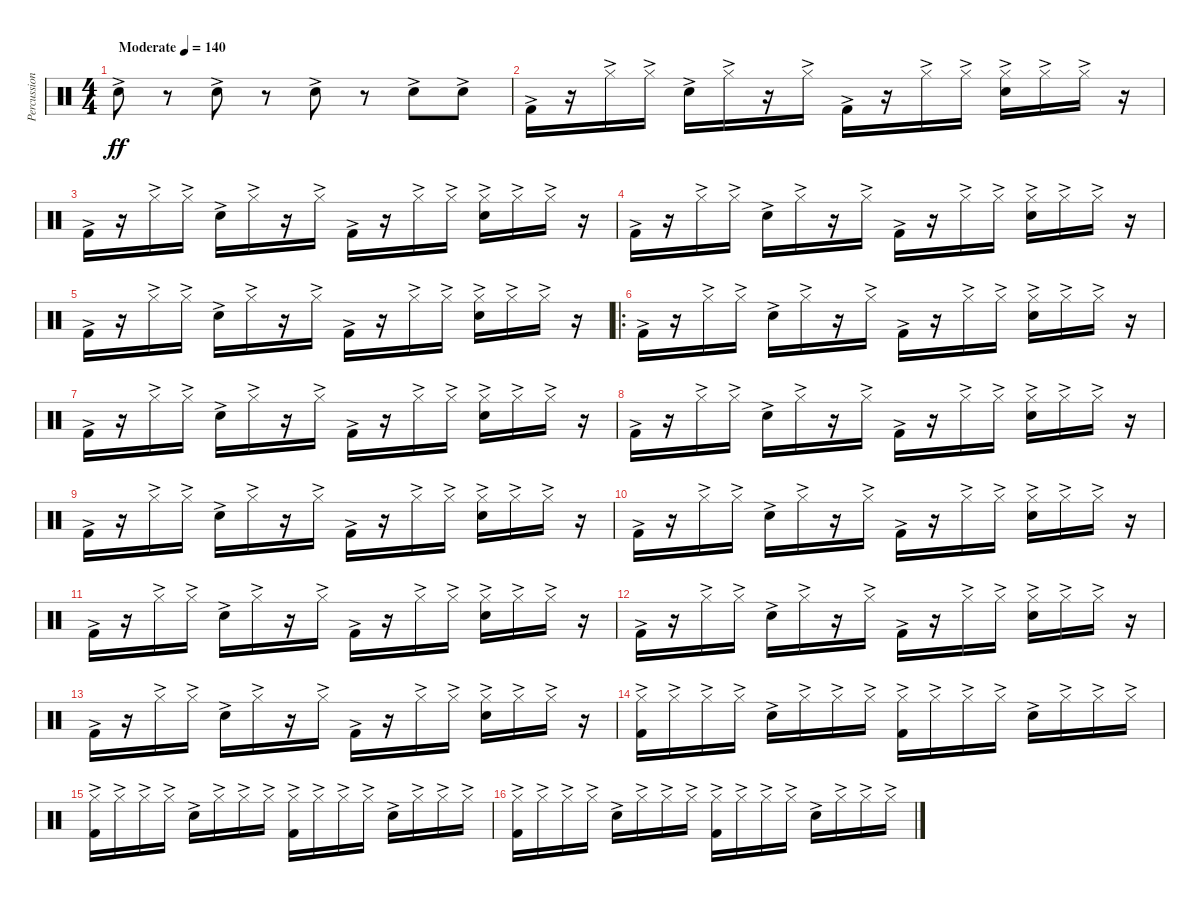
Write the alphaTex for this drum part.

\track ("Percussion" "Percussion") {instrument percussion}
\staff {score}
\articulation defaults
\ts (4 4)
\tempo (140 "Moderate")
\clef neutral
\ks c "Snare (hit) 2"{ac}.8{dy ff}
r.8 "Snare (hit) 2"{ac}.8 r.8 "Snare (hit) 2"{ac}.8 r.8 "Snare (hit) 2"{ac}.8 "Snare (hit) 2"{ac}.8 |
"Kick (hit) 2"{ac}.16 r.16 "Hi-Hat (closed)"{ac}.16 "Hi-Hat (closed)"{ac}.16 "Snare (hit) 2"{ac}.16 "Hi-Hat (closed)"{ac}.16 r.16 "Hi-Hat (closed)"{ac}.16 "Kick (hit) 2"{ac}.16 r.16 "Hi-Hat (closed)"{ac}.16 "Hi-Hat (closed)"{ac}.16 ("Hi-Hat (closed)" "Snare (hit) 2"{ac}).16 "Hi-Hat (closed)"{ac}.16 "Hi-Hat (closed)"{ac}.16 r.16 |
"Kick (hit) 2"{ac}.16 r.16 "Hi-Hat (closed)"{ac}.16 "Hi-Hat (closed)"{ac}.16 "Snare (hit) 2"{ac}.16 "Hi-Hat (closed)"{ac}.16 r.16 "Hi-Hat (closed)"{ac}.16 "Kick (hit) 2"{ac}.16 r.16 "Hi-Hat (closed)"{ac}.16 "Hi-Hat (closed)"{ac}.16 ("Hi-Hat (closed)" "Snare (hit) 2"{ac}).16 "Hi-Hat (closed)"{ac}.16 "Hi-Hat (closed)"{ac}.16 r.16 |
"Kick (hit) 2"{ac}.16 r.16 "Hi-Hat (closed)"{ac}.16 "Hi-Hat (closed)"{ac}.16 "Snare (hit) 2"{ac}.16 "Hi-Hat (closed)"{ac}.16 r.16 "Hi-Hat (closed)"{ac}.16 "Kick (hit) 2"{ac}.16 r.16 "Hi-Hat (closed)"{ac}.16 "Hi-Hat (closed)"{ac}.16 ("Hi-Hat (closed)" "Snare (hit) 2"{ac}).16 "Hi-Hat (closed)"{ac}.16 "Hi-Hat (closed)"{ac}.16 r.16 |
"Kick (hit) 2"{ac}.16 r.16 "Hi-Hat (closed)"{ac}.16 "Hi-Hat (closed)"{ac}.16 "Snare (hit) 2"{ac}.16 "Hi-Hat (closed)"{ac}.16 r.16 "Hi-Hat (closed)"{ac}.16 "Kick (hit) 2"{ac}.16 r.16 "Hi-Hat (closed)"{ac}.16 "Hi-Hat (closed)"{ac}.16 ("Hi-Hat (closed)" "Snare (hit) 2"{ac}).16 "Hi-Hat (closed)"{ac}.16 "Hi-Hat (closed)"{ac}.16 r.16 |
\ro "Kick (hit) 2"{ac}.16
r.16 "Hi-Hat (closed)"{ac}.16 "Hi-Hat (closed)"{ac}.16 "Snare (hit) 2"{ac}.16 "Hi-Hat (closed)"{ac}.16 r.16 "Hi-Hat (closed)"{ac}.16 "Kick (hit) 2"{ac}.16 r.16 "Hi-Hat (closed)"{ac}.16 "Hi-Hat (closed)"{ac}.16 ("Hi-Hat (closed)" "Snare (hit) 2"{ac}).16 "Hi-Hat (closed)"{ac}.16 "Hi-Hat (closed)"{ac}.16 r.16 |
"Kick (hit) 2"{ac}.16 r.16 "Hi-Hat (closed)"{ac}.16 "Hi-Hat (closed)"{ac}.16 "Snare (hit) 2"{ac}.16 "Hi-Hat (closed)"{ac}.16 r.16 "Hi-Hat (closed)"{ac}.16 "Kick (hit) 2"{ac}.16 r.16 "Hi-Hat (closed)"{ac}.16 "Hi-Hat (closed)"{ac}.16 ("Hi-Hat (closed)" "Snare (hit) 2"{ac}).16 "Hi-Hat (closed)"{ac}.16 "Hi-Hat (closed)"{ac}.16 r.16 |
"Kick (hit) 2"{ac}.16 r.16 "Hi-Hat (closed)"{ac}.16 "Hi-Hat (closed)"{ac}.16 "Snare (hit) 2"{ac}.16 "Hi-Hat (closed)"{ac}.16 r.16 "Hi-Hat (closed)"{ac}.16 "Kick (hit) 2"{ac}.16 r.16 "Hi-Hat (closed)"{ac}.16 "Hi-Hat (closed)"{ac}.16 ("Hi-Hat (closed)" "Snare (hit) 2"{ac}).16 "Hi-Hat (closed)"{ac}.16 "Hi-Hat (closed)"{ac}.16 r.16 |
"Kick (hit) 2"{ac}.16 r.16 "Hi-Hat (closed)"{ac}.16 "Hi-Hat (closed)"{ac}.16 "Snare (hit) 2"{ac}.16 "Hi-Hat (closed)"{ac}.16 r.16 "Hi-Hat (closed)"{ac}.16 "Kick (hit) 2"{ac}.16 r.16 "Hi-Hat (closed)"{ac}.16 "Hi-Hat (closed)"{ac}.16 ("Hi-Hat (closed)" "Snare (hit) 2"{ac}).16 "Hi-Hat (closed)"{ac}.16 "Hi-Hat (closed)"{ac}.16 r.16 |
"Kick (hit) 2"{ac}.16 r.16 "Hi-Hat (closed)"{ac}.16 "Hi-Hat (closed)"{ac}.16 "Snare (hit) 2"{ac}.16 "Hi-Hat (closed)"{ac}.16 r.16 "Hi-Hat (closed)"{ac}.16 "Kick (hit) 2"{ac}.16 r.16 "Hi-Hat (closed)"{ac}.16 "Hi-Hat (closed)"{ac}.16 ("Hi-Hat (closed)" "Snare (hit) 2"{ac}).16 "Hi-Hat (closed)"{ac}.16 "Hi-Hat (closed)"{ac}.16 r.16 |
"Kick (hit) 2"{ac}.16 r.16 "Hi-Hat (closed)"{ac}.16 "Hi-Hat (closed)"{ac}.16 "Snare (hit) 2"{ac}.16 "Hi-Hat (closed)"{ac}.16 r.16 "Hi-Hat (closed)"{ac}.16 "Kick (hit) 2"{ac}.16 r.16 "Hi-Hat (closed)"{ac}.16 "Hi-Hat (closed)"{ac}.16 ("Hi-Hat (closed)" "Snare (hit) 2"{ac}).16 "Hi-Hat (closed)"{ac}.16 "Hi-Hat (closed)"{ac}.16 r.16 |
"Kick (hit) 2"{ac}.16 r.16 "Hi-Hat (closed)"{ac}.16 "Hi-Hat (closed)"{ac}.16 "Snare (hit) 2"{ac}.16 "Hi-Hat (closed)"{ac}.16 r.16 "Hi-Hat (closed)"{ac}.16 "Kick (hit) 2"{ac}.16 r.16 "Hi-Hat (closed)"{ac}.16 "Hi-Hat (closed)"{ac}.16 ("Hi-Hat (closed)" "Snare (hit) 2"{ac}).16 "Hi-Hat (closed)"{ac}.16 "Hi-Hat (closed)"{ac}.16 r.16 |
"Kick (hit) 2"{ac}.16 r.16 "Hi-Hat (closed)"{ac}.16 "Hi-Hat (closed)"{ac}.16 "Snare (hit) 2"{ac}.16 "Hi-Hat (closed)"{ac}.16 r.16 "Hi-Hat (closed)"{ac}.16 "Kick (hit) 2"{ac}.16 r.16 "Hi-Hat (closed)"{ac}.16 "Hi-Hat (closed)"{ac}.16 ("Hi-Hat (closed)" "Snare (hit) 2"{ac}).16 "Hi-Hat (closed)"{ac}.16 "Hi-Hat (closed)"{ac}.16 r.16 |
("Hi-Hat (closed)"{ac} "Kick (hit) 2"{ac}).16 "Hi-Hat (closed)"{ac}.16 "Hi-Hat (closed)"{ac}.16 "Hi-Hat (closed)"{ac}.16 "Snare (hit) 2"{ac}.16 "Hi-Hat (closed)"{ac}.16 "Hi-Hat (closed)"{ac}.16 "Hi-Hat (closed)"{ac}.16 ("Hi-Hat (closed)"{ac} "Kick (hit) 2"{ac}).16 "Hi-Hat (closed)"{ac}.16 "Hi-Hat (closed)"{ac}.16 "Hi-Hat (closed)"{ac}.16 "Snare (hit) 2"{ac}.16 "Hi-Hat (closed)"{ac}.16 "Hi-Hat (closed)"{ac}.16 "Hi-Hat (closed)"{ac}.16 |
("Hi-Hat (closed)"{ac} "Kick (hit) 2"{ac}).16 "Hi-Hat (closed)"{ac}.16 "Hi-Hat (closed)"{ac}.16 "Hi-Hat (closed)"{ac}.16 "Snare (hit) 2"{ac}.16 "Hi-Hat (closed)"{ac}.16 "Hi-Hat (closed)"{ac}.16 "Hi-Hat (closed)"{ac}.16 ("Hi-Hat (closed)"{ac} "Kick (hit) 2"{ac}).16 "Hi-Hat (closed)"{ac}.16 "Hi-Hat (closed)"{ac}.16 "Hi-Hat (closed)"{ac}.16 "Snare (hit) 2"{ac}.16 "Hi-Hat (closed)"{ac}.16 "Hi-Hat (closed)"{ac}.16 "Hi-Hat (closed)"{ac}.16 |
("Hi-Hat (closed)"{ac} "Kick (hit) 2"{ac}).16 "Hi-Hat (closed)"{ac}.16 "Hi-Hat (closed)"{ac}.16 "Hi-Hat (closed)"{ac}.16 "Snare (hit) 2"{ac}.16 "Hi-Hat (closed)"{ac}.16 "Hi-Hat (closed)"{ac}.16 "Hi-Hat (closed)"{ac}.16 ("Hi-Hat (closed)"{ac} "Kick (hit) 2"{ac}).16 "Hi-Hat (closed)"{ac}.16 "Hi-Hat (closed)"{ac}.16 "Hi-Hat (closed)"{ac}.16 "Snare (hit) 2"{ac}.16 "Hi-Hat (closed)"{ac}.16 "Hi-Hat (closed)"{ac}.16 "Hi-Hat (closed)"{ac}.16
